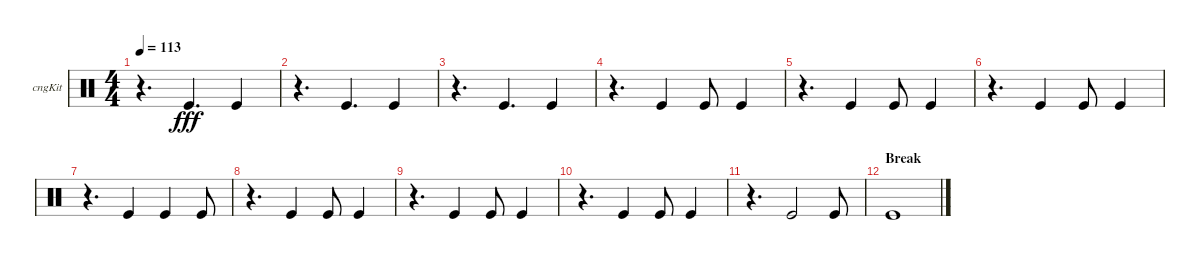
\defaultSystemsLayout 4
\bracketExtendMode groupsimilarinstruments
\firstSystemTrackNameOrientation horizontal
\otherSystemsTrackNameOrientation horizontal
\track ("Congas" "cngKit") {instrument percussion}
\staff {score}
\articulation defaults
\ts (4 4)
\tempo 113
\clef neutral
\scale
0.333333
\ks c
r.4{d dy fff} "Kick (hit)".4{d} "Kick (hit)".4 |
\scale
0.333333 r.4{d} "Kick (hit)".4{d} "Kick (hit)".4 |
\scale
0.333333 r.4{d} "Kick (hit)".4{d} "Kick (hit)".4 |
\scale
0.333333 r.4{d} "Kick (hit)".4 "Kick (hit)".8 "Kick (hit)".4 |
\scale
0.333333 r.4{d} "Kick (hit)".4 "Kick (hit)".8 "Kick (hit)".4 |
\scale
0.333333 r.4{d} "Kick (hit)".4 "Kick (hit)".8 "Kick (hit)".4 |
\scale
0.333333 r.4{d} "Kick (hit)".4 "Kick (hit)".4 "Kick (hit)".8 |
\scale
0.333333 r.4{d} "Kick (hit)".4 "Kick (hit)".8 "Kick (hit)".4 |
\scale
0.333333 r.4{d} "Kick (hit)".4 "Kick (hit)".8 "Kick (hit)".4 |
\scale
0.333333 r.4{d} "Kick (hit)".4 "Kick (hit)".8 "Kick (hit)".4 |
\scale
0.333333 r.4{d} "Kick (hit)".2 "Kick (hit)".8 |
\section ("" "Break")
\scale
0.333333 "Kick (hit)".1 |
\scale
0.333333
